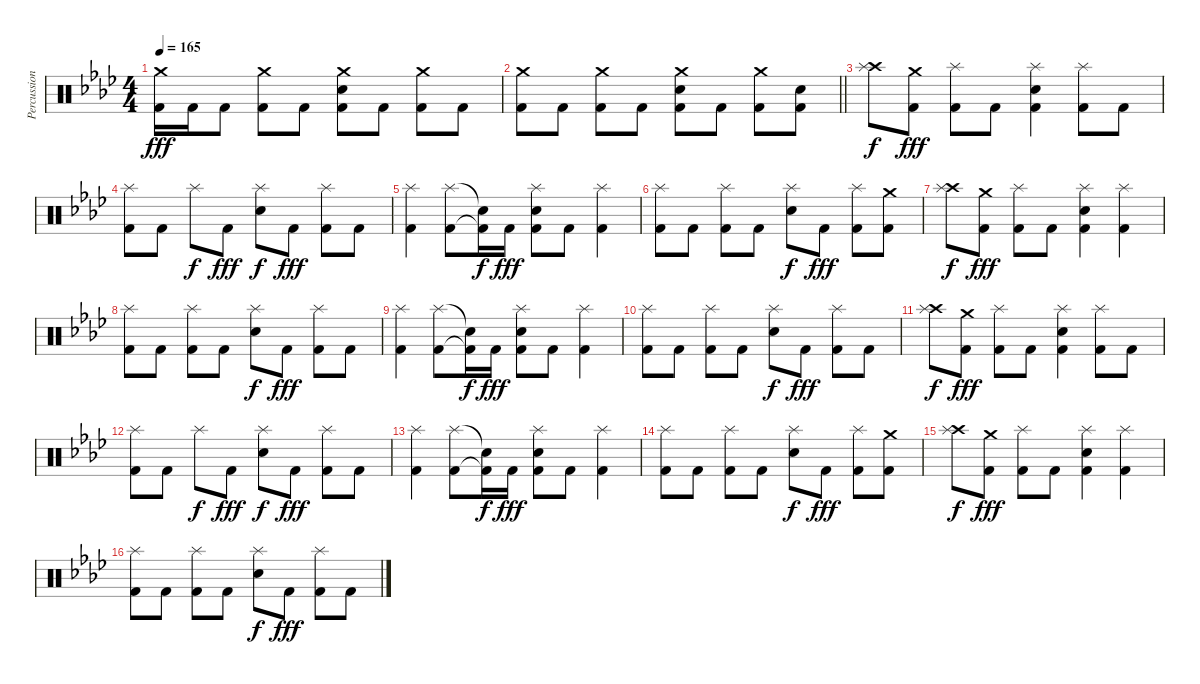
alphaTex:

\track ("Percussion" "Percussion") {instrument percussion}
\staff {score}
\articulation defaults
\ts (4 4)
\tempo 165
\clef neutral
\ks ab
("Crash medium (hit)" "Kick (hit) 2").16{dy fff} "Kick (hit) 2".16 "Kick (hit) 2".8 ("Crash medium (hit)" "Kick (hit) 2").8 "Kick (hit) 2".8 ("Crash medium (hit)" "Electric Snare (hit)" "Kick (hit) 2").8 "Kick (hit) 2".8 ("Crash medium (hit)" "Kick (hit) 2").8 "Kick (hit) 2".8 |
\barLineRight lightlight
("Crash medium (hit)" "Kick (hit) 2").8 "Kick (hit) 2".8 ("Crash medium (hit)" "Kick (hit) 2").8 "Kick (hit) 2".8 ("Crash medium (hit)" "Electric Snare (hit)" "Kick (hit) 2").8 "Kick (hit) 2".8 ("Crash medium (hit)" "Kick (hit) 2").8 ("Electric Snare (hit)" "Kick (hit) 2").8 |
\section ("" "")
("Crash high (hit)" "Splash (hit)").8{dy f} ("Crash medium (hit)" "Kick (hit) 2").8{dy fff} ("Splash (hit)" "Kick (hit) 2").8 "Kick (hit) 2".8 ("Splash (hit)" "Electric Snare (hit)" "Kick (hit) 2").4 ("Splash (hit)" "Kick (hit) 2").8 "Kick (hit) 2".8 |
("Splash (hit)" "Kick (hit) 2").8 "Kick (hit) 2".8 "Splash (hit)".8{dy f} "Kick (hit) 2".8{dy fff} ("Splash (hit)" "Electric Snare (hit)").8{dy f} "Kick (hit) 2".8{dy fff} ("Splash (hit)" "Kick (hit) 2").8 "Kick (hit) 2".8 |
("Splash (hit)" "Kick (hit) 2").4 ("Splash (hit)" "Kick (hit) 2").8 ("Snare (hit)"{t} "Kick (hit) 2"{t}).16{dy f} "Kick (hit) 2".16{dy fff} ("Splash (hit)" "Electric Snare (hit)" "Kick (hit) 2").8 "Kick (hit) 2".8 ("Splash (hit)" "Kick (hit) 2").4 |
("Splash (hit)" "Kick (hit) 2").8 "Kick (hit) 2".8 ("Splash (hit)" "Kick (hit) 2").8 "Kick (hit) 2".8 ("Splash (hit)" "Electric Snare (hit)").8{dy f} "Kick (hit) 2".8{dy fff} ("Splash (hit)" "Kick (hit) 2").8 ("Crash medium (hit)" "Kick (hit) 2").8 |
("Crash high (hit)" "Splash (hit)").8{dy f} ("Crash medium (hit)" "Kick (hit) 2").8{dy fff} ("Splash (hit)" "Kick (hit) 2").8 "Kick (hit) 2".8 ("Splash (hit)" "Electric Snare (hit)" "Kick (hit) 2").4 ("Splash (hit)" "Kick (hit) 2").4 |
("Splash (hit)" "Kick (hit) 2").8 "Kick (hit) 2".8 ("Splash (hit)" "Kick (hit) 2").8 "Kick (hit) 2".8 ("Splash (hit)" "Electric Snare (hit)").8{dy f} "Kick (hit) 2".8{dy fff} ("Splash (hit)" "Kick (hit) 2").8 "Kick (hit) 2".8 |
("Splash (hit)" "Kick (hit) 2").4 ("Splash (hit)" "Kick (hit) 2").8 ("Snare (hit)"{t} "Kick (hit) 2"{t}).16{dy f} "Kick (hit) 2".16{dy fff} ("Splash (hit)" "Electric Snare (hit)" "Kick (hit) 2").8 "Kick (hit) 2".8 ("Splash (hit)" "Kick (hit) 2").4 |
("Splash (hit)" "Kick (hit) 2").8 "Kick (hit) 2".8 ("Splash (hit)" "Kick (hit) 2").8 "Kick (hit) 2".8 ("Splash (hit)" "Electric Snare (hit)").8{dy f} "Kick (hit) 2".8{dy fff} ("Splash (hit)" "Kick (hit) 2").8 "Kick (hit) 2".8 |
("Crash high (hit)" "Splash (hit)").8{dy f} ("Crash medium (hit)" "Kick (hit) 2").8{dy fff} ("Splash (hit)" "Kick (hit) 2").8 "Kick (hit) 2".8 ("Splash (hit)" "Electric Snare (hit)" "Kick (hit) 2").4 ("Splash (hit)" "Kick (hit) 2").8 "Kick (hit) 2".8 |
("Splash (hit)" "Kick (hit) 2").8 "Kick (hit) 2".8 "Splash (hit)".8{dy f} "Kick (hit) 2".8{dy fff} ("Splash (hit)" "Electric Snare (hit)").8{dy f} "Kick (hit) 2".8{dy fff} ("Splash (hit)" "Kick (hit) 2").8 "Kick (hit) 2".8 |
("Splash (hit)" "Kick (hit) 2").4 ("Splash (hit)" "Kick (hit) 2").8 ("Snare (hit)"{t} "Kick (hit) 2"{t}).16{dy f} "Kick (hit) 2".16{dy fff} ("Splash (hit)" "Electric Snare (hit)" "Kick (hit) 2").8 "Kick (hit) 2".8 ("Splash (hit)" "Kick (hit) 2").4 |
("Splash (hit)" "Kick (hit) 2").8 "Kick (hit) 2".8 ("Splash (hit)" "Kick (hit) 2").8 "Kick (hit) 2".8 ("Splash (hit)" "Electric Snare (hit)").8{dy f} "Kick (hit) 2".8{dy fff} ("Splash (hit)" "Kick (hit) 2").8 ("Crash medium (hit)" "Kick (hit) 2").8 |
("Crash high (hit)" "Splash (hit)").8{dy f} ("Crash medium (hit)" "Kick (hit) 2").8{dy fff} ("Splash (hit)" "Kick (hit) 2").8 "Kick (hit) 2".8 ("Splash (hit)" "Electric Snare (hit)" "Kick (hit) 2").4 ("Splash (hit)" "Kick (hit) 2").4 |
("Splash (hit)" "Kick (hit) 2").8 "Kick (hit) 2".8 ("Splash (hit)" "Kick (hit) 2").8 "Kick (hit) 2".8 ("Splash (hit)" "Electric Snare (hit)").8{dy f} "Kick (hit) 2".8{dy fff} ("Splash (hit)" "Kick (hit) 2").8 "Kick (hit) 2".8
